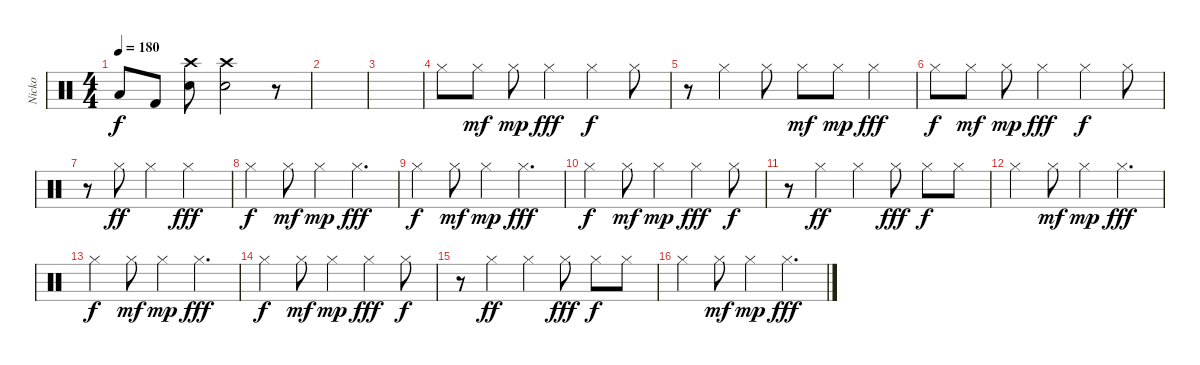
\track ("Nicko" "Nicko") {instrument percussion}
\staff {score}
\articulation defaults
\ts (4 4)
\tempo 180
\clef neutral
\ks c "Low Tom (hit)".8{dy f} "Kick (hit) 2".8
("Crash high (hit)" "Snare (hit) 2").8 ("Crash high (hit)" "Snare (hit) 2").2 r.8 |
|
|
"Hi-Hat (closed)".8 "Hi-Hat (closed)".8{dy mf} "Hi-Hat (closed)".8{dy mp} "Hi-Hat (closed)".4{dy fff} "Hi-Hat (closed)".4{dy f} "Hi-Hat (closed)".8 |
r.8 "Hi-Hat (closed)".4 "Hi-Hat (closed)".8 "Hi-Hat (closed)".8{dy mf} "Hi-Hat (closed)".8{dy mp} "Hi-Hat (closed)".4{dy fff} |
"Hi-Hat (closed)".8{dy f} "Hi-Hat (closed)".8{dy mf} "Hi-Hat (closed)".8{dy mp} "Hi-Hat (closed)".4{dy fff} "Hi-Hat (closed)".4{dy f} "Hi-Hat (closed)".8 |
r.8 "Hi-Hat (closed)".8{dy ff} "Hi-Hat (closed)".4 "Hi-Hat (closed)".2{dy fff} |
"Hi-Hat (closed)".4{dy f} "Hi-Hat (closed)".8{dy mf} "Hi-Hat (closed)".4{dy mp} "Hi-Hat (closed)".4{d dy fff} |
"Hi-Hat (closed)".4{dy f} "Hi-Hat (closed)".8{dy mf} "Hi-Hat (closed)".4{dy mp} "Hi-Hat (closed)".4{d dy fff} |
"Hi-Hat (closed)".4{dy f} "Hi-Hat (closed)".8{dy mf} "Hi-Hat (closed)".4{dy mp} "Hi-Hat (closed)".4{dy fff} "Hi-Hat (closed)".8{dy f} |
r.8 "Hi-Hat (closed)".4{dy ff} "Hi-Hat (closed)".4 "Hi-Hat (closed)".8{dy fff} "Hi-Hat (closed)".8{dy f} "Hi-Hat (closed)".8 |
"Hi-Hat (closed)".4 "Hi-Hat (closed)".8{dy mf} "Hi-Hat (closed)".4{dy mp} "Hi-Hat (closed)".4{d dy fff} |
"Hi-Hat (closed)".4{dy f} "Hi-Hat (closed)".8{dy mf} "Hi-Hat (closed)".4{dy mp} "Hi-Hat (closed)".4{d dy fff} |
"Hi-Hat (closed)".4{dy f} "Hi-Hat (closed)".8{dy mf} "Hi-Hat (closed)".4{dy mp} "Hi-Hat (closed)".4{dy fff} "Hi-Hat (closed)".8{dy f} |
r.8 "Hi-Hat (closed)".4{dy ff} "Hi-Hat (closed)".4 "Hi-Hat (closed)".8{dy fff} "Hi-Hat (closed)".8{dy f} "Hi-Hat (closed)".8 |
"Hi-Hat (closed)".4 "Hi-Hat (closed)".8{dy mf} "Hi-Hat (closed)".4{dy mp} "Hi-Hat (closed)".4{d dy fff}
